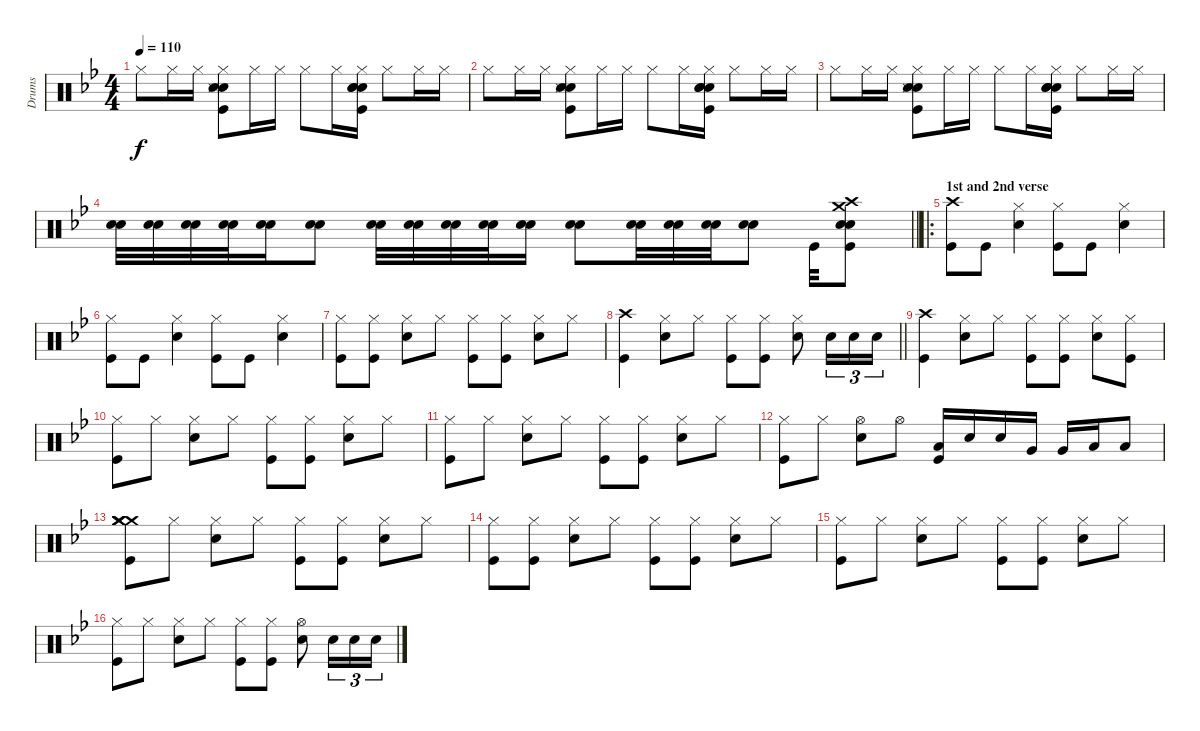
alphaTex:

\track ("Drums" "Drums") {instrument percussion}
\staff {score}
\articulation defaults
\ts (4 4)
\tempo 110
\clef neutral
\ks bb "Hi-Hat (closed)".8{dy f} "Hi-Hat (closed)".16 "Hi-Hat (closed)".16
("Hi-Hat (closed)" "Electric Snare (hit)" "Snare (side stick) 3" "Kick (hit)" "Hand Clap (hit)").8 "Hi-Hat (closed)".16 "Hi-Hat (closed)".16 "Hi-Hat (closed)".8 "Hi-Hat (closed)".16 ("Hi-Hat (closed)" "Electric Snare (hit)" "Snare (hit) 2" "Kick (hit)" "Hand Clap (hit)").16 "Hi-Hat (closed)".8 "Hi-Hat (closed)".16 "Hi-Hat (closed)".16 |
"Hi-Hat (closed)".8 "Hi-Hat (closed)".16 "Hi-Hat (closed)".16 ("Hi-Hat (closed)" "Electric Snare (hit)" "Snare (side stick) 3" "Kick (hit)" "Hand Clap (hit)").8 "Hi-Hat (closed)".16 "Hi-Hat (closed)".16 "Hi-Hat (closed)".8 "Hi-Hat (closed)".16 ("Hi-Hat (closed)" "Electric Snare (hit)" "Snare (hit) 2" "Kick (hit)" "Hand Clap (hit)").16 "Hi-Hat (closed)".8 "Hi-Hat (closed)".16 "Hi-Hat (closed)".16 |
"Hi-Hat (closed)".8 "Hi-Hat (closed)".16 "Hi-Hat (closed)".16 ("Hi-Hat (closed)" "Electric Snare (hit)" "Snare (side stick) 3" "Kick (hit)" "Hand Clap (hit)").8 "Hi-Hat (closed)".16 "Hi-Hat (closed)".16 "Hi-Hat (closed)".8 "Hi-Hat (closed)".16 ("Hi-Hat (closed)" "Electric Snare (hit)" "Snare (hit) 2" "Kick (hit)" "Hand Clap (hit)").16 "Hi-Hat (closed)".8 "Hi-Hat (closed)".16 "Hi-Hat (closed)".16 |
\barLineRight lightlight
("Electric Snare (hit)" "Snare (hit) 2").32 ("Electric Snare (hit)" "Snare (hit) 2").32 ("Electric Snare (hit)" "Snare (hit) 2").32 ("Electric Snare (hit)" "Snare (hit) 2").32 ("Electric Snare (hit)" "Snare (hit) 2").16 ("Electric Snare (hit)" "Snare (hit) 2").8 ("Electric Snare (hit)" "Snare (hit) 2").32 ("Electric Snare (hit)" "Snare (hit) 2").32 ("Electric Snare (hit)" "Snare (hit) 2").32 ("Electric Snare (hit)" "Snare (hit) 2").32 ("Electric Snare (hit)" "Snare (hit) 2").16 ("Electric Snare (hit)" "Snare (hit) 2").8 ("Electric Snare (hit)" "Snare (hit) 2").32 ("Electric Snare (hit)" "Snare (hit) 2").32 ("Electric Snare (hit)" "Snare (hit) 2").32 ("Electric Snare (hit)" "Snare (hit) 2").8 "Kick (hit)".32 ("Electric Snare (hit)" "Crash high (hit)" "Crash medium (hit)" "Kick (hit)" "Snare (hit) 2").8 |
\ro
\section ("" "1st and 2nd verse")
("Crash high (hit)" "Kick (hit)").8 "Kick (hit)".8 ("Hi-Hat (closed)" "Snare (hit) 2").4 ("Hi-Hat (closed)" "Kick (hit)").8 "Kick (hit)".8 ("Hi-Hat (closed)" "Snare (hit) 2").4 |
("Hi-Hat (closed)" "Kick (hit)").8 "Kick (hit)".8 ("Hi-Hat (closed)" "Snare (hit) 2").4 ("Hi-Hat (closed)" "Kick (hit)").8 "Kick (hit)".8 ("Hi-Hat (closed)" "Snare (hit) 2").4 |
("Hi-Hat (closed)" "Kick (hit)").8 ("Hi-Hat (closed)" "Kick (hit)").8 ("Hi-Hat (closed)" "Snare (hit) 2").8 "Hi-Hat (closed)".8 ("Hi-Hat (closed)" "Kick (hit)").8 ("Hi-Hat (closed)" "Kick (hit)").8 ("Hi-Hat (closed)" "Snare (hit) 2").8 "Hi-Hat (closed)".8 |
\barLineRight lightlight
("Crash high (hit)" "Kick (hit)").4 ("Hi-Hat (closed)" "Snare (hit) 2").8 "Hi-Hat (closed)".8 ("Hi-Hat (closed)" "Kick (hit)").8 ("Hi-Hat (closed)" "Kick (hit)").8 ("Hi-Hat (closed)" "Snare (hit) 2").8 "Snare (hit) 2".16{tu (3 2)} "Snare (hit) 2".16{tu (3 2)} "Snare (hit) 2".16{tu (3 2)} |
("Crash high (hit)" "Kick (hit)").4 ("Hi-Hat (closed)" "Snare (hit) 2").8 "Hi-Hat (closed)".8 ("Hi-Hat (closed)" "Kick (hit)").8 ("Hi-Hat (closed)" "Kick (hit)").8 ("Hi-Hat (closed)" "Snare (hit) 2").8 ("Hi-Hat (closed)" "Kick (hit)").8 |
("Hi-Hat (closed)" "Kick (hit)").8 "Hi-Hat (closed)".8 ("Hi-Hat (closed)" "Snare (hit) 2").8 "Hi-Hat (closed)".8 ("Hi-Hat (closed)" "Kick (hit)").8 ("Hi-Hat (closed)" "Kick (hit)").8 ("Hi-Hat (closed)" "Snare (hit) 2").8 "Hi-Hat (closed)".8 |
("Hi-Hat (closed)" "Kick (hit)").8 "Hi-Hat (closed)".8 ("Hi-Hat (closed)" "Snare (hit) 2").8 "Hi-Hat (closed)".8 ("Hi-Hat (closed)" "Kick (hit)").8 ("Hi-Hat (closed)" "Kick (hit)").8 ("Hi-Hat (closed)" "Snare (hit) 2").8 "Hi-Hat (closed)".8 |
("Hi-Hat (closed)" "Kick (hit)").8 "Hi-Hat (closed)".8 ("Hi-Hat (open)" "Snare (hit) 2").8 "Hi-Hat (open)".8 ("Low Tom (hit)" "Kick (hit)").16 "Snare (hit) 2".16 "Snare (hit) 2".16 "Very Low Tom (hit)".16 "Very Low Tom (hit)".16 "Low Tom (hit)".16 "Low Tom (hit)".8 |
("Crash medium (hit)" "Crash medium (hit)" "Crash medium (hit)" "Crash medium (hit)" "Kick (hit)").8 "Hi-Hat (closed)".8 ("Hi-Hat (closed)" "Snare (hit) 2").8 "Hi-Hat (closed)".8 ("Hi-Hat (closed)" "Kick (hit)").8 ("Hi-Hat (closed)" "Kick (hit)").8 ("Hi-Hat (closed)" "Snare (hit) 2").8 "Hi-Hat (closed)".8 |
("Hi-Hat (closed)" "Kick (hit)").8 ("Hi-Hat (closed)" "Kick (hit)").8 ("Hi-Hat (closed)" "Snare (hit) 2").8 "Hi-Hat (closed)".8 ("Hi-Hat (closed)" "Kick (hit)").8 ("Hi-Hat (closed)" "Kick (hit)").8 ("Hi-Hat (closed)" "Snare (hit) 2").8 "Hi-Hat (closed)".8 |
("Hi-Hat (closed)" "Kick (hit)").8 "Hi-Hat (closed)".8 ("Hi-Hat (closed)" "Snare (hit) 2").8 "Hi-Hat (closed)".8 ("Hi-Hat (closed)" "Kick (hit)").8 ("Hi-Hat (closed)" "Kick (hit)").8 ("Hi-Hat (closed)" "Snare (hit) 2").8 "Hi-Hat (closed)".8 |
("Hi-Hat (closed)" "Kick (hit)").8 "Hi-Hat (closed)".8 ("Hi-Hat (closed)" "Snare (hit) 2").8 "Hi-Hat (closed)".8 ("Hi-Hat (closed)" "Kick (hit)").8 ("Hi-Hat (closed)" "Kick (hit)").8 ("Hi-Hat (open)" "Snare (hit) 2").8 "Snare (hit) 2".16{tu (3 2)} "Snare (hit) 2".16{tu (3 2)} "Snare (hit) 2".16{tu (3 2)}
